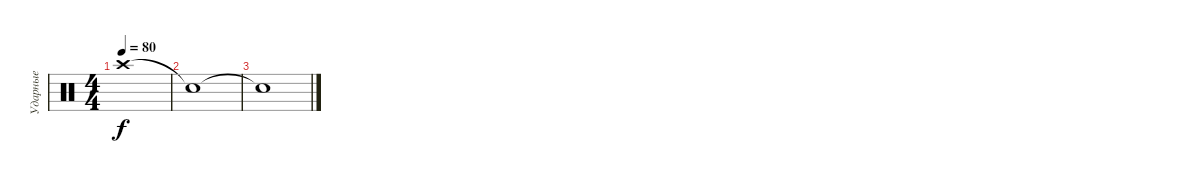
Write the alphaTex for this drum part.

\track ("Ударные" "Ударные") {instrument percussion}
\staff {score}
\articulation defaults
\ts (4 4)
\tempo 80
\clef neutral
\ks c "Crash high (hit)".1{dy f}
|
"Snare (hit)"{t}.1 |
"Snare (hit)"{t}.1
